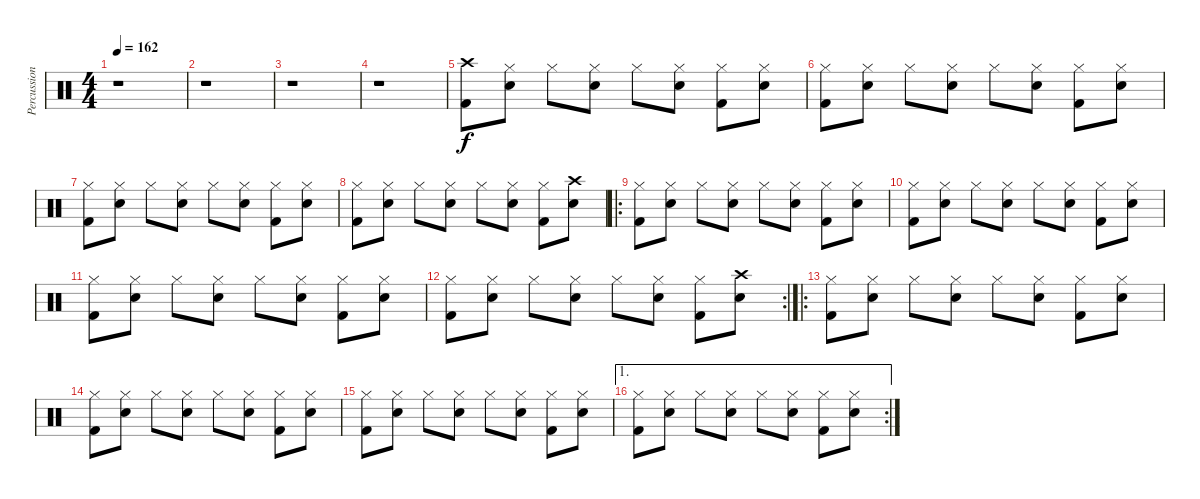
\track ("Percussions" "Percussion") {instrument percussion}
\staff {score}
\articulation defaults
\ts (4 4)
\tempo 162
\clef neutral
\ks c
r.1{dy f} |
r.1 |
r.1 |
r.1 |
("Crash high (hit)" "Kick (hit) 2").8 ("Hi-Hat (closed)" "Electric Snare (hit)").8 "Hi-Hat (closed)".8 ("Hi-Hat (closed)" "Electric Snare (hit)").8 "Hi-Hat (closed)".8 ("Hi-Hat (closed)" "Electric Snare (hit)").8 ("Hi-Hat (closed)" "Kick (hit) 2").8 ("Hi-Hat (closed)" "Electric Snare (hit)").8 |
("Hi-Hat (closed)" "Kick (hit) 2").8 ("Hi-Hat (closed)" "Electric Snare (hit)").8 "Hi-Hat (closed)".8 ("Hi-Hat (closed)" "Electric Snare (hit)").8 "Hi-Hat (closed)".8 ("Hi-Hat (closed)" "Electric Snare (hit)").8 ("Hi-Hat (closed)" "Kick (hit) 2").8 ("Hi-Hat (closed)" "Electric Snare (hit)").8 |
("Hi-Hat (closed)" "Kick (hit) 2").8 ("Hi-Hat (closed)" "Electric Snare (hit)").8 "Hi-Hat (closed)".8 ("Hi-Hat (closed)" "Electric Snare (hit)").8 "Hi-Hat (closed)".8 ("Hi-Hat (closed)" "Electric Snare (hit)").8 ("Hi-Hat (closed)" "Kick (hit) 2").8 ("Hi-Hat (closed)" "Electric Snare (hit)").8 |
("Hi-Hat (closed)" "Kick (hit) 2").8 ("Hi-Hat (closed)" "Electric Snare (hit)").8 "Hi-Hat (closed)".8 ("Hi-Hat (closed)" "Electric Snare (hit)").8 "Hi-Hat (closed)".8 ("Hi-Hat (closed)" "Electric Snare (hit)").8 ("Hi-Hat (closed)" "Kick (hit) 2").8 ("Crash high (hit)" "Electric Snare (hit)").8 |
\ro
("Hi-Hat (closed)" "Kick (hit) 2").8 ("Hi-Hat (closed)" "Electric Snare (hit)").8 "Hi-Hat (closed)".8 ("Hi-Hat (closed)" "Electric Snare (hit)").8 "Hi-Hat (closed)".8 ("Hi-Hat (closed)" "Electric Snare (hit)").8 ("Hi-Hat (closed)" "Kick (hit) 2").8 ("Hi-Hat (closed)" "Electric Snare (hit)").8 |
("Hi-Hat (closed)" "Kick (hit) 2").8 ("Hi-Hat (closed)" "Electric Snare (hit)").8 "Hi-Hat (closed)".8 ("Hi-Hat (closed)" "Electric Snare (hit)").8 "Hi-Hat (closed)".8 ("Hi-Hat (closed)" "Electric Snare (hit)").8 ("Hi-Hat (closed)" "Kick (hit) 2").8 ("Hi-Hat (closed)" "Electric Snare (hit)").8 |
("Hi-Hat (closed)" "Kick (hit) 2").8 ("Hi-Hat (closed)" "Electric Snare (hit)").8 "Hi-Hat (closed)".8 ("Hi-Hat (closed)" "Electric Snare (hit)").8 "Hi-Hat (closed)".8 ("Hi-Hat (closed)" "Electric Snare (hit)").8 ("Hi-Hat (closed)" "Kick (hit) 2").8 ("Hi-Hat (closed)" "Electric Snare (hit)").8 |
\rc 2
("Hi-Hat (closed)" "Kick (hit) 2").8 ("Hi-Hat (closed)" "Electric Snare (hit)").8 "Hi-Hat (closed)".8 ("Hi-Hat (closed)" "Electric Snare (hit)").8 "Hi-Hat (closed)".8 ("Hi-Hat (closed)" "Electric Snare (hit)").8 ("Hi-Hat (closed)" "Kick (hit) 2").8 ("Crash high (hit)" "Electric Snare (hit)").8 |
\ro
("Hi-Hat (closed)" "Kick (hit) 2").8 ("Hi-Hat (closed)" "Electric Snare (hit)").8 "Hi-Hat (closed)".8 ("Hi-Hat (closed)" "Electric Snare (hit)").8 "Hi-Hat (closed)".8 ("Hi-Hat (closed)" "Electric Snare (hit)").8 ("Hi-Hat (closed)" "Kick (hit) 2").8 ("Hi-Hat (closed)" "Electric Snare (hit)").8 |
("Hi-Hat (closed)" "Kick (hit) 2").8 ("Hi-Hat (closed)" "Electric Snare (hit)").8 "Hi-Hat (closed)".8 ("Hi-Hat (closed)" "Electric Snare (hit)").8 "Hi-Hat (closed)".8 ("Hi-Hat (closed)" "Electric Snare (hit)").8 ("Hi-Hat (closed)" "Kick (hit) 2").8 ("Hi-Hat (closed)" "Electric Snare (hit)").8 |
("Hi-Hat (closed)" "Kick (hit) 2").8 ("Hi-Hat (closed)" "Electric Snare (hit)").8 "Hi-Hat (closed)".8 ("Hi-Hat (closed)" "Electric Snare (hit)").8 "Hi-Hat (closed)".8 ("Hi-Hat (closed)" "Electric Snare (hit)").8 ("Hi-Hat (closed)" "Kick (hit) 2").8 ("Hi-Hat (closed)" "Electric Snare (hit)").8 |
\ae 1
\rc 2
("Hi-Hat (closed)" "Kick (hit) 2").8 ("Hi-Hat (closed)" "Electric Snare (hit)").8 "Hi-Hat (closed)".8 ("Hi-Hat (closed)" "Electric Snare (hit)").8 "Hi-Hat (closed)".8 ("Hi-Hat (closed)" "Electric Snare (hit)").8 ("Hi-Hat (closed)" "Kick (hit) 2").8 ("Hi-Hat (closed)" "Electric Snare (hit)").8
